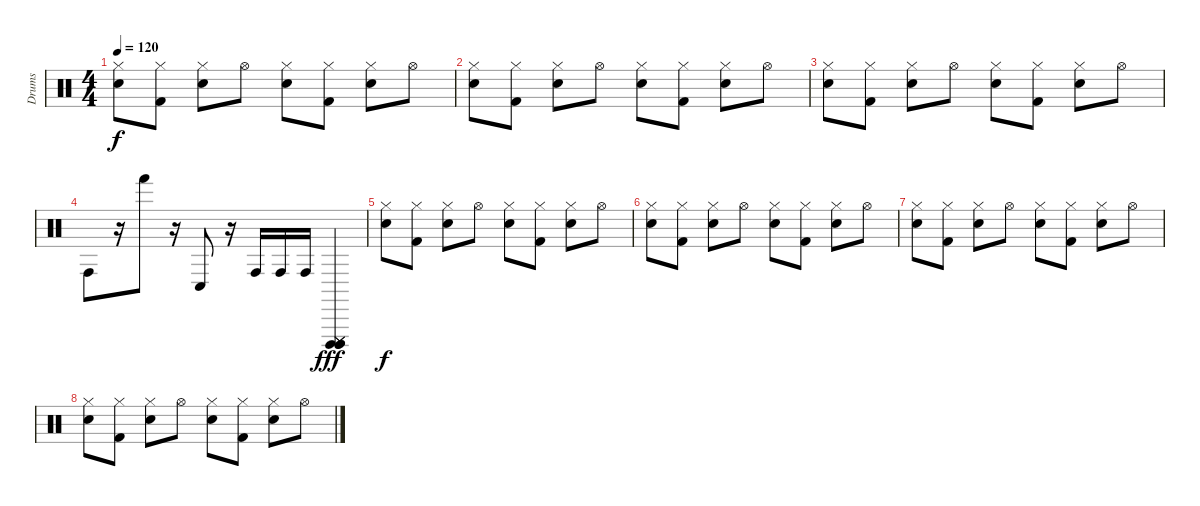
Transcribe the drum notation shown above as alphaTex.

\track ("Drums" "Drums") {instrument percussion}
\staff {score}
\articulation defaults
\ts (4 4)
\tempo 120
\clef neutral
\ks c
("Electric Snare (hit)" "Hi-Hat (closed)").8{dy f} ("Hi-Hat (closed)" "Kick (hit) 2").8 ("Electric Snare (hit)" "Hi-Hat (closed)").8 "Hi-Hat (open)".8 ("Electric Snare (hit)" "Hi-Hat (closed)").8 ("Hi-Hat (closed)" "Kick (hit) 2").8 ("Electric Snare (hit)" "Hi-Hat (closed)").8 "Hi-Hat (open)".8 |
("Electric Snare (hit)" "Hi-Hat (closed)").8 ("Hi-Hat (closed)" "Kick (hit) 2").8 ("Electric Snare (hit)" "Hi-Hat (closed)").8 "Hi-Hat (open)".8 ("Electric Snare (hit)" "Hi-Hat (closed)").8 ("Hi-Hat (closed)" "Kick (hit) 2").8 ("Electric Snare (hit)" "Hi-Hat (closed)").8 "Hi-Hat (open)".8 |
("Electric Snare (hit)" "Hi-Hat (closed)").8 ("Hi-Hat (closed)" "Kick (hit) 2").8 ("Electric Snare (hit)" "Hi-Hat (closed)").8 "Hi-Hat (open)".8 ("Electric Snare (hit)" "Hi-Hat (closed)").8 ("Hi-Hat (closed)" "Kick (hit) 2").8 ("Electric Snare (hit)" "Hi-Hat (closed)").8 "Hi-Hat (open)".8 |
"Conga high (hit)".8 r.16 "Hand (hit)".8 r.16 "Conga low (hit)".8 r.16 "Conga high (hit)".16 "Conga high (hit)".16 "Conga high (hit)".16 ("Cuica (open)" "Cuica (mute)" "Cuica (open)" "Cuica (mute)" "Cuica (open)" "Cuica (mute)").4{dy fff} |
("Electric Snare (hit)" "Hi-Hat (closed)").8{dy f} ("Hi-Hat (closed)" "Kick (hit) 2").8 ("Electric Snare (hit)" "Hi-Hat (closed)").8 "Hi-Hat (open)".8 ("Electric Snare (hit)" "Hi-Hat (closed)").8 ("Hi-Hat (closed)" "Kick (hit) 2").8 ("Electric Snare (hit)" "Hi-Hat (closed)").8 "Hi-Hat (open)".8 |
("Electric Snare (hit)" "Hi-Hat (closed)").8 ("Hi-Hat (closed)" "Kick (hit) 2").8 ("Electric Snare (hit)" "Hi-Hat (closed)").8 "Hi-Hat (open)".8 ("Electric Snare (hit)" "Hi-Hat (closed)").8 ("Hi-Hat (closed)" "Kick (hit) 2").8 ("Electric Snare (hit)" "Hi-Hat (closed)").8 "Hi-Hat (open)".8 |
("Electric Snare (hit)" "Hi-Hat (closed)").8 ("Hi-Hat (closed)" "Kick (hit) 2").8 ("Electric Snare (hit)" "Hi-Hat (closed)").8 "Hi-Hat (open)".8 ("Electric Snare (hit)" "Hi-Hat (closed)").8 ("Hi-Hat (closed)" "Kick (hit) 2").8 ("Electric Snare (hit)" "Hi-Hat (closed)").8 "Hi-Hat (open)".8 |
("Electric Snare (hit)" "Hi-Hat (closed)").8 ("Hi-Hat (closed)" "Kick (hit) 2").8 ("Electric Snare (hit)" "Hi-Hat (closed)").8 "Hi-Hat (open)".8 ("Electric Snare (hit)" "Hi-Hat (closed)").8 ("Hi-Hat (closed)" "Kick (hit) 2").8 ("Electric Snare (hit)" "Hi-Hat (closed)").8 "Hi-Hat (open)".8
